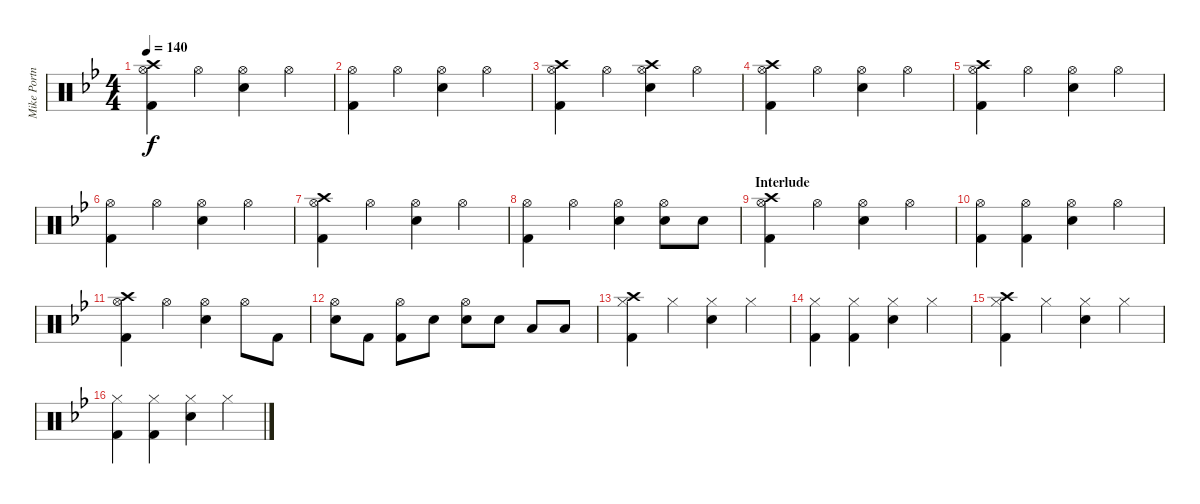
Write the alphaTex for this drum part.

\track ("Mike Portnoy - Drums" "Mike Portn") {instrument percussion}
\staff {score}
\articulation defaults
\ts (4 4)
\tempo 140
\clef neutral
\ks bb
("Crash high (hit)" "Hi-Hat (open)" "Kick (hit) 2").4{dy f} "Hi-Hat (open)".4 ("Hi-Hat (open)" "Snare (hit) 2").4 "Hi-Hat (open)".4 |
("Hi-Hat (open)" "Kick (hit) 2").4 "Hi-Hat (open)".4 ("Hi-Hat (open)" "Snare (hit) 2").4 "Hi-Hat (open)".4 |
("Crash high (hit)" "Hi-Hat (open)" "Kick (hit) 2").4 "Hi-Hat (open)".4 ("Crash high (hit)" "Hi-Hat (open)" "Snare (hit) 2").4 "Hi-Hat (open)".4 |
("Crash high (hit)" "Hi-Hat (open)" "Kick (hit) 2").4 "Hi-Hat (open)".4 ("Hi-Hat (open)" "Snare (hit) 2").4 "Hi-Hat (open)".4 |
("Crash high (hit)" "Hi-Hat (open)" "Kick (hit) 2").4 "Hi-Hat (open)".4 ("Hi-Hat (open)" "Snare (hit) 2").4 "Hi-Hat (open)".4 |
("Hi-Hat (open)" "Kick (hit) 2").4 "Hi-Hat (open)".4 ("Hi-Hat (open)" "Snare (hit) 2").4 "Hi-Hat (open)".4 |
("Crash high (hit)" "Hi-Hat (open)" "Kick (hit) 2").4 "Hi-Hat (open)".4 ("Hi-Hat (open)" "Snare (hit) 2").4 "Hi-Hat (open)".4 |
("Hi-Hat (open)" "Kick (hit) 2").4 "Hi-Hat (open)".4 ("Hi-Hat (open)" "Snare (hit) 2").4 ("Hi-Hat (open)" "Snare (hit) 2").8 "Snare (hit) 2".8 |
\section ("" "Interlude")
("Crash high (hit)" "Hi-Hat (open)" "Kick (hit) 2").4 "Hi-Hat (open)".4 ("Hi-Hat (open)" "Snare (hit) 2").4 "Hi-Hat (open)".4 |
("Hi-Hat (open)" "Kick (hit) 2").4 ("Hi-Hat (open)" "Kick (hit) 2").4 ("Hi-Hat (open)" "Snare (hit) 2").4 "Hi-Hat (open)".4 |
("Crash high (hit)" "Hi-Hat (open)" "Kick (hit) 2").4 "Hi-Hat (open)".4 ("Hi-Hat (open)" "Snare (hit) 2").4 "Hi-Hat (open)".8 "Kick (hit) 2".8 |
("Hi-Hat (open)" "Snare (hit) 2").8 "Kick (hit) 2".8 ("Hi-Hat (open)" "Kick (hit) 2").8 "Snare (hit) 2".8 ("Hi-Hat (open)" "Snare (hit) 2").8 "Snare (hit) 2".8 "Low Tom (hit)".8 "Low Floor Tom (hit)".8 |
\section ("" "")
("Hi-Hat (closed)" "Crash high (hit)" "Kick (hit) 2").4 "Hi-Hat (closed)".4 ("Hi-Hat (closed)" "Snare (hit) 2").4 "Hi-Hat (closed)".4 |
("Hi-Hat (closed)" "Kick (hit) 2").4 ("Hi-Hat (closed)" "Kick (hit) 2").4 ("Hi-Hat (closed)" "Snare (hit) 2").4 "Hi-Hat (closed)".4 |
("Hi-Hat (closed)" "Crash high (hit)" "Kick (hit) 2").4 "Hi-Hat (closed)".4 ("Hi-Hat (closed)" "Snare (hit) 2").4 "Hi-Hat (closed)".4 |
("Hi-Hat (closed)" "Kick (hit) 2").4 ("Hi-Hat (closed)" "Kick (hit) 2").4 ("Hi-Hat (closed)" "Snare (hit) 2").4 "Hi-Hat (closed)".4
